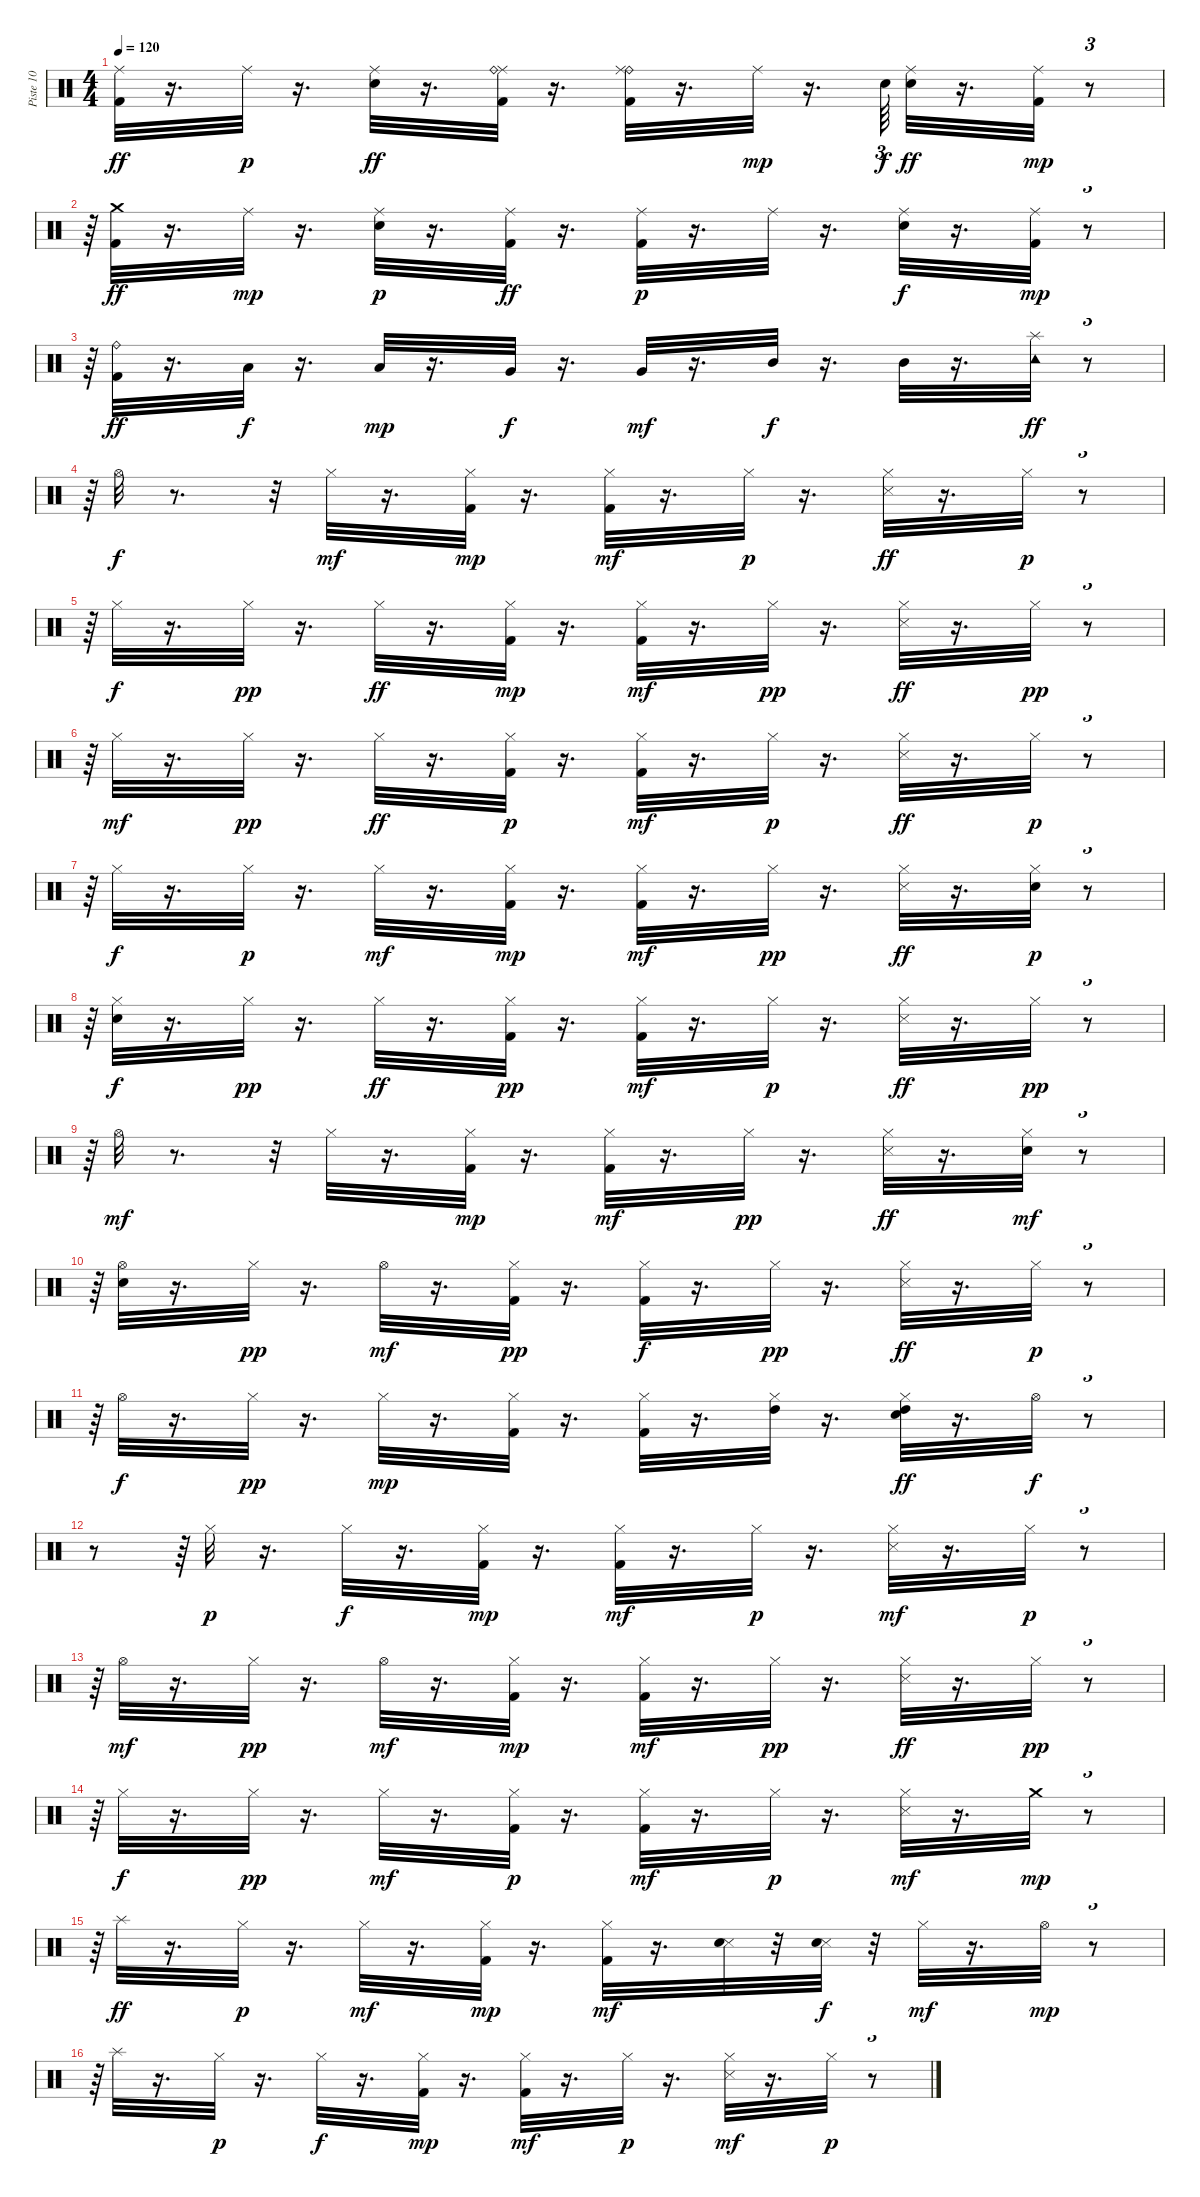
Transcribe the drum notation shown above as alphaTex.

\track ("Piste 10" "Piste 10") {instrument percussion}
\staff {score}
\articulation defaults
\ts (4 4)
\tempo 120
\clef neutral
\ks c
("Ride (middle)" "Kick (hit) 2").32{dy ff} r.16{d} "Ride (middle)".32{dy p} r.16{d} ("Ride (middle)" "Electric Snare (hit)").32{dy ff} r.16{d} ("Ride (middle)" "Ride (bell)" "Kick (hit) 2").32 r.16{d} ("Ride (bell)" "Ride (middle)" "Kick (hit) 2").32 r.16{d} "Ride (middle)".32{dy mp} r.16{d} "Electric Snare (hit)".64{tu (3 2) dy f} ("Ride (middle)" "Electric Snare (hit)").32{dy ff} r.16{d} ("Ride (middle)" "Kick (hit) 2").32{dy mp} r.8{tu (3 2)} |
r.64{tu (3 2)} ("Crash medium (hit)" "Kick (hit) 2").32{dy ff} r.16{d} "Ride (middle)".32{dy mp} r.16{d} ("Electric Snare (hit)" "Ride (middle)").32{dy p} r.16{d} ("Kick (hit) 2" "Ride (middle)").32{dy ff} r.16{d} ("Kick (hit) 2" "Ride (middle)").32{dy p} r.16{d} "Ride (middle)".32 r.16{d} ("Ride (middle)" "Electric Snare (hit)").32{dy f} r.16{d} ("Kick (hit) 2" "Ride (middle)").32{dy mp} r.8{tu (3 2)} |
r.64{tu (3 2)} ("Ride (bell)" "Kick (hit) 2").32{dy ff} r.16{d} "Low Floor Tom (hit)".32{dy f} r.16{d} "Low Floor Tom (hit)".32{dy mp} r.16{d} "Very Low Tom (hit)".32{dy f} r.16{d} "Very Low Tom (hit)".32{dy mf} r.16{d} "Mid Tom (hit)".32{dy f} r.16{d} "Mid Tom (hit)".32 r.16{d} ("Splash (hit)" "Tambourine (hit)").32{dy ff} r.8{tu (3 2)} |
r.64{tu (3 2)} "Hi-Hat (open)".32{dy f} r.8{d} r.32 "Hi-Hat (closed)".32{dy mf} r.16{d} ("Hi-Hat (closed)" "Kick (hit) 2").32{dy mp} r.16{d} ("Hi-Hat (closed)" "Kick (hit) 2").32{dy mf} r.16{d} "Hi-Hat (closed)".32{dy p} r.16{d} ("Hi-Hat (closed)" "Snare (side stick) 3").32{dy ff} r.16{d} "Hi-Hat (closed)".32{dy p} r.8{tu (3 2)} |
r.64{tu (3 2)} "Hi-Hat (closed)".32{dy f} r.16{d} "Hi-Hat (closed)".32{dy pp} r.16{d} "Hi-Hat (closed)".32{dy ff} r.16{d} ("Hi-Hat (closed)" "Kick (hit) 2").32{dy mp} r.16{d} ("Hi-Hat (closed)" "Kick (hit) 2").32{dy mf} r.16{d} "Hi-Hat (closed)".32{dy pp} r.16{d} ("Hi-Hat (closed)" "Snare (side stick) 3").32{dy ff} r.16{d} "Hi-Hat (closed)".32{dy pp} r.8{tu (3 2)} |
r.64{tu (3 2)} "Hi-Hat (closed)".32{dy mf} r.16{d} "Hi-Hat (closed)".32{dy pp} r.16{d} "Hi-Hat (closed)".32{dy ff} r.16{d} ("Kick (hit) 2" "Hi-Hat (closed)").32{dy p} r.16{d} ("Hi-Hat (closed)" "Kick (hit) 2").32{dy mf} r.16{d} "Hi-Hat (closed)".32{dy p} r.16{d} ("Hi-Hat (closed)" "Snare (side stick) 3").32{dy ff} r.16{d} "Hi-Hat (closed)".32{dy p} r.8{tu (3 2)} |
r.64{tu (3 2)} "Hi-Hat (closed)".32{dy f} r.16{d} "Hi-Hat (closed)".32{dy p} r.16{d} "Hi-Hat (closed)".32{dy mf} r.16{d} ("Hi-Hat (closed)" "Kick (hit) 2").32{dy mp} r.16{d} ("Hi-Hat (closed)" "Kick (hit) 2").32{dy mf} r.16{d} "Hi-Hat (closed)".32{dy pp} r.16{d} ("Hi-Hat (closed)" "Snare (side stick) 3").32{dy ff} r.16{d} ("Hi-Hat (closed)" "Electric Snare (hit)").32{dy p} r.8{tu (3 2)} |
r.64{tu (3 2)} ("Electric Snare (hit)" "Hi-Hat (closed)").32{dy f} r.16{d} "Hi-Hat (closed)".32{dy pp} r.16{d} "Hi-Hat (closed)".32{dy ff} r.16{d} ("Kick (hit) 2" "Hi-Hat (closed)").32{dy pp} r.16{d} ("Hi-Hat (closed)" "Kick (hit) 2").32{dy mf} r.16{d} "Hi-Hat (closed)".32{dy p} r.16{d} ("Hi-Hat (closed)" "Snare (side stick) 3").32{dy ff} r.16{d} "Hi-Hat (closed)".32{dy pp} r.8{tu (3 2)} |
r.64{tu (3 2)} "Hi-Hat (open)".32{dy mf} r.8{d} r.32 "Hi-Hat (closed)".32 r.16{d} ("Hi-Hat (closed)" "Kick (hit) 2").32{dy mp} r.16{d} ("Hi-Hat (closed)" "Kick (hit) 2").32{dy mf} r.16{d} "Hi-Hat (closed)".32{dy pp} r.16{d} ("Hi-Hat (closed)" "Snare (side stick) 3").32{dy ff} r.16{d} ("Hi-Hat (closed)" "Electric Snare (hit)").32{dy mf} r.8{tu (3 2)} |
r.64{tu (3 2)} ("Electric Snare (hit)" "Hi-Hat (open)").32 r.16{d} "Hi-Hat (closed)".32{dy pp} r.16{d} "Hi-Hat (open)".32{dy mf} r.16{d} ("Kick (hit) 2" "Hi-Hat (closed)").32{dy pp} r.16{d} ("Kick (hit) 2" "Hi-Hat (closed)").32{dy f} r.16{d} "Hi-Hat (closed)".32{dy pp} r.16{d} ("Snare (side stick) 3" "Hi-Hat (closed)").32{dy ff} r.16{d} "Hi-Hat (closed)".32{dy p} r.8{tu (3 2)} |
r.64{tu (3 2)} "Hi-Hat (open)".32{dy f} r.16{d} "Hi-Hat (closed)".32{dy pp} r.16{d} "Hi-Hat (closed)".32{dy mp} r.16{d} ("Hi-Hat (closed)" "Kick (hit) 2").32 r.16{d} ("Kick (hit) 2" "Hi-Hat (closed)").32 r.16{d} ("Hi-Hat (closed)" "High Tom (hit)").32 r.16{d} ("Hi-Hat (closed)" "Electric Snare (hit)" "High Tom (hit)").32{dy ff} r.16{d} "Hi-Hat (open)".32{dy f} r.8{tu (3 2)} |
r.8 r.64{tu (3 2)} "Hi-Hat (closed)".32{dy p} r.16{d} "Hi-Hat (closed)".32{dy f} r.16{d} ("Hi-Hat (closed)" "Kick (hit) 2").32{dy mp} r.16{d} ("Hi-Hat (closed)" "Kick (hit) 2").32{dy mf} r.16{d} "Hi-Hat (closed)".32{dy p} r.16{d} ("Hi-Hat (closed)" "Snare (side stick) 3").32{dy mf} r.16{d} "Hi-Hat (closed)".32{dy p} r.8{tu (3 2)} |
r.64{tu (3 2)} "Hi-Hat (open)".32{dy mf} r.16{d} "Hi-Hat (closed)".32{dy pp} r.16{d} "Hi-Hat (open)".32{dy mf} r.16{d} ("Hi-Hat (closed)" "Kick (hit) 2").32{dy mp} r.16{d} ("Hi-Hat (closed)" "Kick (hit) 2").32{dy mf} r.16{d} "Hi-Hat (closed)".32{dy pp} r.16{d} ("Hi-Hat (closed)" "Snare (side stick) 3").32{dy ff} r.16{d} "Hi-Hat (closed)".32{dy pp} r.8{tu (3 2)} |
r.64{tu (3 2)} "Hi-Hat (closed)".32{dy f} r.16{d} "Hi-Hat (closed)".32{dy pp} r.16{d} "Hi-Hat (closed)".32{dy mf} r.16{d} ("Kick (hit) 2" "Hi-Hat (closed)").32{dy p} r.16{d} ("Hi-Hat (closed)" "Kick (hit) 2").32{dy mf} r.16{d} "Hi-Hat (closed)".32{dy p} r.16{d} ("Hi-Hat (closed)" "Snare (side stick) 3").32{dy mf} r.16{d} "Crash medium (hit)".32{dy mp} r.8{tu (3 2)} |
r.64{tu (3 2)} "Splash (hit)".32{dy ff} r.16{d} "Hi-Hat (closed)".32{dy p} r.16{d} "Hi-Hat (closed)".32{dy mf} r.16{d} ("Hi-Hat (closed)" "Kick (hit) 2").32{dy mp} r.16{d} ("Hi-Hat (closed)" "Kick (hit) 2").32{dy mf} r.16{d} ("Snare (side stick) 3" "Electric Snare (hit)").32 r.32 ("Snare (side stick) 3" "Electric Snare (hit)").32{dy f} r.32 "Hi-Hat (closed)".32{dy mf} r.16{d} "Hi-Hat (open)".32{dy mp} r.8{tu (3 2)} |
r.64{tu (3 2)} "Splash (hit)".32 r.16{d} "Hi-Hat (closed)".32{dy p} r.16{d} "Hi-Hat (closed)".32{dy f} r.16{d} ("Hi-Hat (closed)" "Kick (hit) 2").32{dy mp} r.16{d} ("Hi-Hat (closed)" "Kick (hit) 2").32{dy mf} r.16{d} "Hi-Hat (closed)".32{dy p} r.16{d} ("Hi-Hat (closed)" "Snare (side stick) 3").32{dy mf} r.16{d} "Hi-Hat (closed)".32{dy p} r.8{tu (3 2)}
